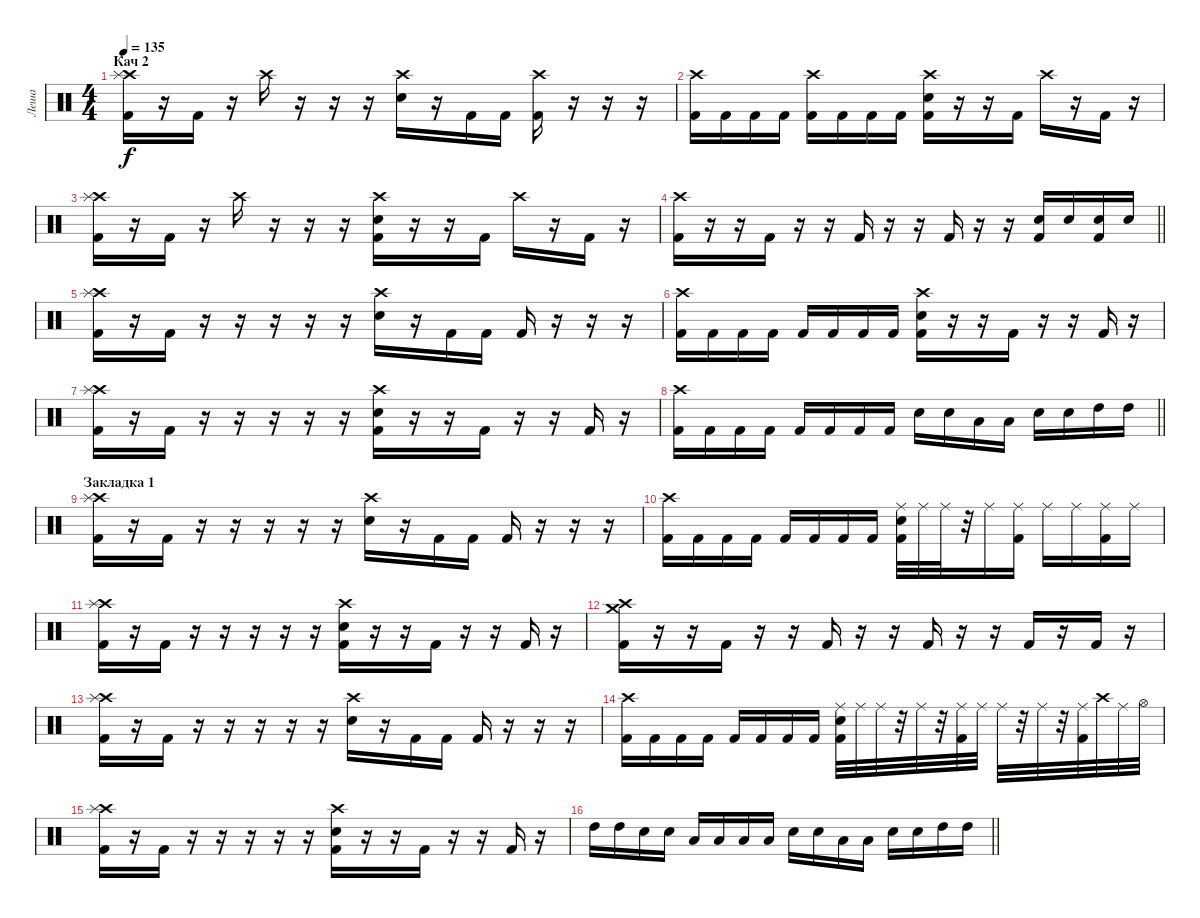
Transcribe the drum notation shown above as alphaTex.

\track ("Леша" "Леша") {instrument percussion}
\staff {score}
\articulation defaults
\ts (4 4)
\section ("" "Кач 2")
\tempo 135
\clef neutral
\ks c
("Crash high (hit)" "Splash (hit)" "Kick (hit) 2").16{dy f} r.16 "Kick (hit) 2".16 r.16 "Crash high (hit)".16 r.16 r.16 r.16 ("Crash high (hit)" "Electric Snare (hit)").16 r.16 "Kick (hit) 2".16 "Kick (hit) 2".16 ("Crash high (hit)" "Kick (hit) 2").16 r.16 r.16 r.16 |
("Crash high (hit)" "Kick (hit) 2").16 "Kick (hit) 2".16 "Kick (hit) 2".16 "Kick (hit) 2".16 ("Crash high (hit)" "Kick (hit) 2").16 "Kick (hit) 2".16 "Kick (hit) 2".16 "Kick (hit) 2".16 ("Crash high (hit)" "Electric Snare (hit)" "Kick (hit) 2").16 r.16 r.16 "Kick (hit) 2".16 "Crash high (hit)".16 r.16 "Kick (hit) 2".16 r.16 |
("Crash high (hit)" "Splash (hit)" "Kick (hit) 2").16 r.16 "Kick (hit) 2".16 r.16 "Crash high (hit)".16 r.16 r.16 r.16 ("Crash high (hit)" "Electric Snare (hit)" "Kick (hit) 2").16 r.16 r.16 "Kick (hit) 2".16 "Crash high (hit)".16 r.16 "Kick (hit) 2".16 r.16 |
\barLineRight lightlight
("Crash high (hit)" "Kick (hit) 2").16 r.16 r.16 "Kick (hit) 2".16 r.16 r.16 "Kick (hit) 2".16 r.16 r.16 "Kick (hit) 2".16 r.16 r.16 ("Electric Snare (hit)" "Kick (hit) 2").16 "Electric Snare (hit)".16 ("Electric Snare (hit)" "Kick (hit) 2").16 "Electric Snare (hit)".16 |
\section ("" "")
("Crash high (hit)" "Splash (hit)" "Kick (hit) 2").16 r.16 "Kick (hit) 2".16 r.16 r.16 r.16 r.16 r.16 ("Crash high (hit)" "Electric Snare (hit)").16 r.16 "Kick (hit) 2".16 "Kick (hit) 2".16 "Kick (hit) 2".16 r.16 r.16 r.16 |
("Crash high (hit)" "Kick (hit) 2").16 "Kick (hit) 2".16 "Kick (hit) 2".16 "Kick (hit) 2".16 "Kick (hit) 2".16 "Kick (hit) 2".16 "Kick (hit) 2".16 "Kick (hit) 2".16 ("Crash high (hit)" "Electric Snare (hit)" "Kick (hit) 2").16 r.16 r.16 "Kick (hit) 2".16 r.16 r.16 "Kick (hit) 2".16 r.16 |
("Crash high (hit)" "Splash (hit)" "Kick (hit) 2").16 r.16 "Kick (hit) 2".16 r.16 r.16 r.16 r.16 r.16 ("Crash high (hit)" "Electric Snare (hit)" "Kick (hit) 2").16 r.16 r.16 "Kick (hit) 2".16 r.16 r.16 "Kick (hit) 2".16 r.16 |
\barLineRight lightlight
("Crash high (hit)" "Kick (hit) 2").16 "Kick (hit) 2".16 "Kick (hit) 2".16 "Kick (hit) 2".16 "Kick (hit) 2".16 "Kick (hit) 2".16 "Kick (hit) 2".16 "Kick (hit) 2".16 "Electric Snare (hit)".16 "Electric Snare (hit)".16 "Low Tom (hit)".16 "Low Tom (hit)".16 "Electric Snare (hit)".16 "Electric Snare (hit)".16 "High Tom (hit)".16 "High Tom (hit)".16 |
\section ("" "Закладка 1")
("Crash high (hit)" "Splash (hit)" "Kick (hit) 2").16 r.16 "Kick (hit) 2".16 r.16 r.16 r.16 r.16 r.16 ("Crash high (hit)" "Electric Snare (hit)").16 r.16 "Kick (hit) 2".16 "Kick (hit) 2".16 "Kick (hit) 2".16 r.16 r.16 r.16 |
("Crash high (hit)" "Kick (hit) 2").16 "Kick (hit) 2".16 "Kick (hit) 2".16 "Kick (hit) 2".16 "Kick (hit) 2".16 "Kick (hit) 2".16 "Kick (hit) 2".16 "Kick (hit) 2".16 ("Ride (middle)" "Electric Snare (hit)" "Kick (hit) 2").32 "Ride (middle)".32 "Ride (middle)".32 r.32 "Ride (middle)".16 ("Ride (middle)" "Kick (hit) 2").16 "Ride (middle)".16 "Ride (middle)".16 ("Ride (middle)" "Kick (hit) 2").16 "Ride (middle)".16 |
("Crash high (hit)" "Splash (hit)" "Kick (hit) 2").16 r.16 "Kick (hit) 2".16 r.16 r.16 r.16 r.16 r.16 ("Crash high (hit)" "Electric Snare (hit)" "Kick (hit) 2").16 r.16 r.16 "Kick (hit) 2".16 r.16 r.16 "Kick (hit) 2".16 r.16 |
("Crash high (hit)" "Crash medium (hit)" "Kick (hit) 2").16 r.16 r.16 "Kick (hit) 2".16 r.16 r.16 "Kick (hit) 2".16 r.16 r.16 "Kick (hit) 2".16 r.16 r.16 "Kick (hit) 2".16 r.16 "Kick (hit) 2".16 r.16 |
("Crash high (hit)" "Splash (hit)" "Kick (hit) 2").16 r.16 "Kick (hit) 2".16 r.16 r.16 r.16 r.16 r.16 ("Crash high (hit)" "Electric Snare (hit)").16 r.16 "Kick (hit) 2".16 "Kick (hit) 2".16 "Kick (hit) 2".16 r.16 r.16 r.16 |
("Crash high (hit)" "Kick (hit) 2").16 "Kick (hit) 2".16 "Kick (hit) 2".16 "Kick (hit) 2".16 "Kick (hit) 2".16 "Kick (hit) 2".16 "Kick (hit) 2".16 "Kick (hit) 2".16 ("Ride (middle)" "Electric Snare (hit)" "Kick (hit) 2").32 "Ride (middle)".32 "Ride (middle)".32 r.32 "Ride (middle)".32 r.32 ("Ride (middle)" "Kick (hit) 2").32 "Ride (middle)".32 "Ride (middle)".32 r.32 "Ride (middle)".32 r.32 ("Ride (middle)" "Kick (hit) 2").32 "Crash high (hit)".32 "Ride (middle)".32 "Hi-Hat (open)".32 |
("Crash high (hit)" "Splash (hit)" "Kick (hit) 2").16 r.16 "Kick (hit) 2".16 r.16 r.16 r.16 r.16 r.16 ("Crash high (hit)" "Electric Snare (hit)" "Kick (hit) 2").16 r.16 r.16 "Kick (hit) 2".16 r.16 r.16 "Kick (hit) 2".16 r.16 |
\barLineRight lightlight "High Tom (hit)".16 "High Tom (hit)".16 "Electric Snare (hit)".16 "Electric Snare (hit)".16 "Low Tom (hit)".16 "Low Tom (hit)".16 "Low Tom (hit)".16 "Low Tom (hit)".16 "Electric Snare (hit)".16 "Electric Snare (hit)".16 "Low Tom (hit)".16 "Low Tom (hit)".16 "Electric Snare (hit)".16 "Electric Snare (hit)".16 "High Tom (hit)".16 "High Tom (hit)".16
